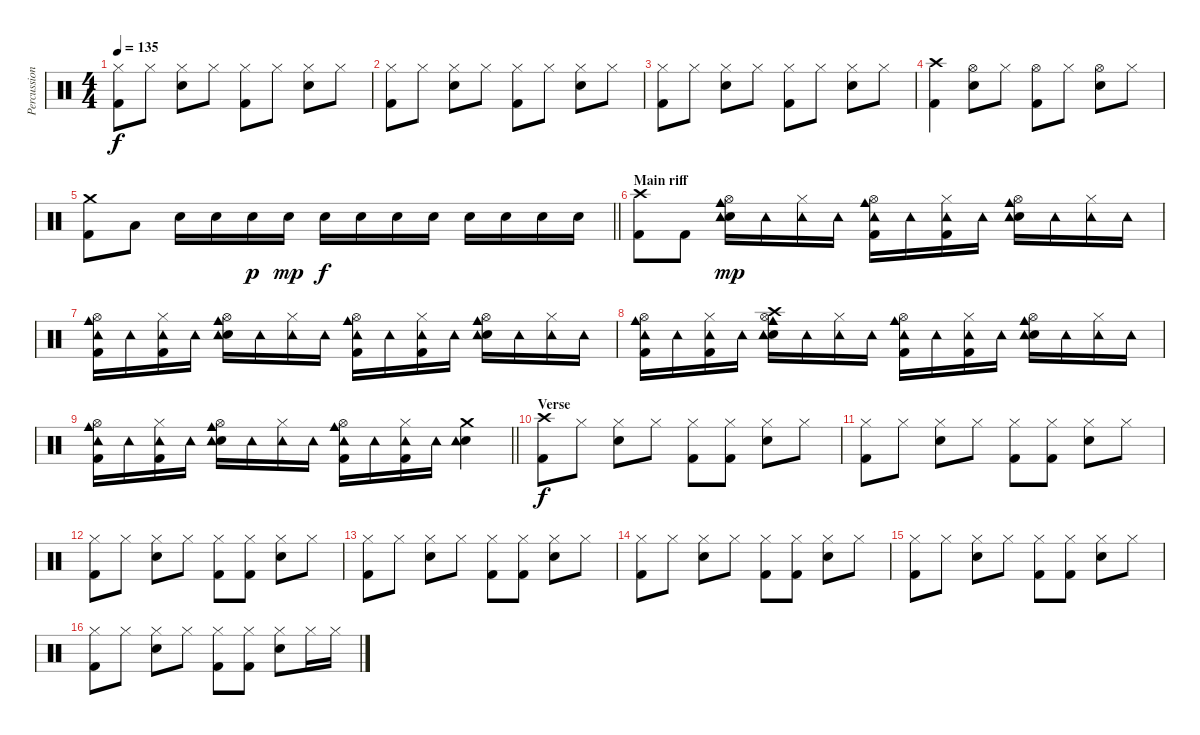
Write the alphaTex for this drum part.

\track ("Percussion" "Percussion") {instrument percussion}
\staff {score}
\articulation defaults
\ts (4 4)
\tempo 135
\clef neutral
\ks c
("Hi-Hat (closed)" "Kick (hit) 2").8{dy f} "Hi-Hat (closed)".8 ("Hi-Hat (closed)" "Electric Snare (hit)").8 "Hi-Hat (closed)".8 ("Hi-Hat (closed)" "Kick (hit) 2").8 "Hi-Hat (closed)".8 ("Hi-Hat (closed)" "Electric Snare (hit)").8 "Hi-Hat (closed)".8 |
("Hi-Hat (closed)" "Kick (hit) 2").8 "Hi-Hat (closed)".8 ("Hi-Hat (closed)" "Electric Snare (hit)").8 "Hi-Hat (closed)".8 ("Hi-Hat (closed)" "Kick (hit) 2").8 "Hi-Hat (closed)".8 ("Hi-Hat (closed)" "Electric Snare (hit)").8 "Hi-Hat (closed)".8 |
("Hi-Hat (closed)" "Kick (hit) 2").8 "Hi-Hat (closed)".8 ("Hi-Hat (closed)" "Electric Snare (hit)").8 "Hi-Hat (closed)".8 ("Hi-Hat (closed)" "Kick (hit) 2").8 "Hi-Hat (closed)".8 ("Hi-Hat (closed)" "Electric Snare (hit)").8 "Hi-Hat (closed)".8 |
("Crash high (hit)" "Kick (hit) 2").4 ("Hi-Hat (open)" "Electric Snare (hit)").8 "Hi-Hat (closed)".8 ("Hi-Hat (open)" "Kick (hit) 2").8 "Hi-Hat (closed)".8 ("Hi-Hat (open)" "Electric Snare (hit)").8 "Hi-Hat (closed)".8 |
\barLineRight lightlight
("Crash medium (hit)" "Kick (hit) 2").8 "Low Tom (hit)".8 "Electric Snare (hit)".16 "Electric Snare (hit)".16 "Electric Snare (hit)".16{dy p} "Electric Snare (hit)".16{dy mp} "Electric Snare (hit)".16{dy f} "Electric Snare (hit)".16 "Electric Snare (hit)".16 "Electric Snare (hit)".16 "Electric Snare (hit)".16 "Electric Snare (hit)".16 "Electric Snare (hit)".16 "Electric Snare (hit)".16 |
\section ("" "Main riff")
("Crash high (hit)" "Kick (hit) 2").8 "Kick (hit) 2".8 ("Hi-Hat (open)" "Cowbell medium (hit)" "Electric Snare (hit)" "Tambourine (hit)").16{dy mp} "Tambourine (hit)".16 ("Hi-Hat (closed)" "Tambourine (hit)").16 "Tambourine (hit)".16 ("Hi-Hat (open)" "Cowbell medium (hit)" "Tambourine (hit)" "Kick (hit) 2").16 "Tambourine (hit)".16 ("Hi-Hat (closed)" "Tambourine (hit)" "Kick (hit) 2").16 "Tambourine (hit)".16 ("Hi-Hat (open)" "Cowbell medium (hit)" "Electric Snare (hit)" "Tambourine (hit)").16 "Tambourine (hit)".16 ("Hi-Hat (closed)" "Tambourine (hit)").16 "Tambourine (hit)".16 |
("Hi-Hat (open)" "Cowbell medium (hit)" "Tambourine (hit)" "Kick (hit) 2").16 "Tambourine (hit)".16 ("Hi-Hat (closed)" "Tambourine (hit)" "Kick (hit) 2").16 "Tambourine (hit)".16 ("Hi-Hat (open)" "Cowbell medium (hit)" "Electric Snare (hit)" "Tambourine (hit)").16 "Tambourine (hit)".16 ("Hi-Hat (closed)" "Tambourine (hit)").16 "Tambourine (hit)".16 ("Hi-Hat (open)" "Cowbell medium (hit)" "Tambourine (hit)" "Kick (hit) 2").16 "Tambourine (hit)".16 ("Hi-Hat (closed)" "Tambourine (hit)" "Kick (hit) 2").16 "Tambourine (hit)".16 ("Hi-Hat (open)" "Cowbell medium (hit)" "Electric Snare (hit)" "Tambourine (hit)").16 "Tambourine (hit)".16 ("Hi-Hat (closed)" "Tambourine (hit)").16 "Tambourine (hit)".16 |
("Hi-Hat (open)" "Cowbell medium (hit)" "Tambourine (hit)" "Kick (hit) 2").16 "Tambourine (hit)".16 ("Hi-Hat (closed)" "Tambourine (hit)" "Kick (hit) 2").16 "Tambourine (hit)".16 ("Crash high (hit)" "Hi-Hat (open)" "Cowbell medium (hit)" "Electric Snare (hit)" "Tambourine (hit)").16 "Tambourine (hit)".16 ("Hi-Hat (closed)" "Tambourine (hit)").16 "Tambourine (hit)".16 ("Hi-Hat (open)" "Cowbell medium (hit)" "Tambourine (hit)" "Kick (hit) 2").16 "Tambourine (hit)".16 ("Hi-Hat (closed)" "Tambourine (hit)" "Kick (hit) 2").16 "Tambourine (hit)".16 ("Hi-Hat (open)" "Cowbell medium (hit)" "Electric Snare (hit)" "Tambourine (hit)").16 "Tambourine (hit)".16 ("Hi-Hat (closed)" "Tambourine (hit)").16 "Tambourine (hit)".16 |
\barLineRight lightlight
("Hi-Hat (open)" "Cowbell medium (hit)" "Tambourine (hit)" "Kick (hit) 2").16 "Tambourine (hit)".16 ("Hi-Hat (closed)" "Tambourine (hit)" "Kick (hit) 2").16 "Tambourine (hit)".16 ("Hi-Hat (open)" "Cowbell medium (hit)" "Electric Snare (hit)" "Tambourine (hit)").16 "Tambourine (hit)".16 ("Hi-Hat (closed)" "Tambourine (hit)").16 "Tambourine (hit)".16 ("Hi-Hat (open)" "Cowbell medium (hit)" "Tambourine (hit)" "Kick (hit) 2").16 "Tambourine (hit)".16 ("Hi-Hat (closed)" "Tambourine (hit)" "Kick (hit) 2").16 "Tambourine (hit)".16 ("Crash medium (hit)" "Electric Snare (hit)" "Tambourine (hit)").4 |
\section ("" "Verse")
("Crash high (hit)" "Kick (hit) 2").8{dy f} "Hi-Hat (closed)".8 ("Hi-Hat (closed)" "Electric Snare (hit)").8 "Hi-Hat (closed)".8 ("Hi-Hat (closed)" "Kick (hit) 2").8 ("Hi-Hat (closed)" "Kick (hit) 2").8 ("Hi-Hat (closed)" "Electric Snare (hit)").8 "Hi-Hat (closed)".8 |
("Hi-Hat (closed)" "Kick (hit) 2").8 "Hi-Hat (closed)".8 ("Hi-Hat (closed)" "Electric Snare (hit)").8 "Hi-Hat (closed)".8 ("Hi-Hat (closed)" "Kick (hit) 2").8 ("Hi-Hat (closed)" "Kick (hit) 2").8 ("Hi-Hat (closed)" "Electric Snare (hit)").8 "Hi-Hat (closed)".8 |
("Hi-Hat (closed)" "Kick (hit) 2").8 "Hi-Hat (closed)".8 ("Hi-Hat (closed)" "Electric Snare (hit)").8 "Hi-Hat (closed)".8 ("Hi-Hat (closed)" "Kick (hit) 2").8 ("Hi-Hat (closed)" "Kick (hit) 2").8 ("Hi-Hat (closed)" "Electric Snare (hit)").8 "Hi-Hat (closed)".8 |
("Hi-Hat (closed)" "Kick (hit) 2").8 "Hi-Hat (closed)".8 ("Hi-Hat (closed)" "Electric Snare (hit)").8 "Hi-Hat (closed)".8 ("Hi-Hat (closed)" "Kick (hit) 2").8 ("Hi-Hat (closed)" "Kick (hit) 2").8 ("Hi-Hat (closed)" "Electric Snare (hit)").8 "Hi-Hat (closed)".8 |
("Hi-Hat (closed)" "Kick (hit) 2").8 "Hi-Hat (closed)".8 ("Hi-Hat (closed)" "Electric Snare (hit)").8 "Hi-Hat (closed)".8 ("Hi-Hat (closed)" "Kick (hit) 2").8 ("Hi-Hat (closed)" "Kick (hit) 2").8 ("Hi-Hat (closed)" "Electric Snare (hit)").8 "Hi-Hat (closed)".8 |
("Hi-Hat (closed)" "Kick (hit) 2").8 "Hi-Hat (closed)".8 ("Hi-Hat (closed)" "Electric Snare (hit)").8 "Hi-Hat (closed)".8 ("Hi-Hat (closed)" "Kick (hit) 2").8 ("Hi-Hat (closed)" "Kick (hit) 2").8 ("Hi-Hat (closed)" "Electric Snare (hit)").8 "Hi-Hat (closed)".8 |
("Hi-Hat (closed)" "Kick (hit) 2").8 "Hi-Hat (closed)".8 ("Hi-Hat (closed)" "Electric Snare (hit)").8 "Hi-Hat (closed)".8 ("Hi-Hat (closed)" "Kick (hit) 2").8 ("Hi-Hat (closed)" "Kick (hit) 2").8 ("Hi-Hat (closed)" "Electric Snare (hit)").8 "Hi-Hat (closed)".16 "Hi-Hat (closed)".16
